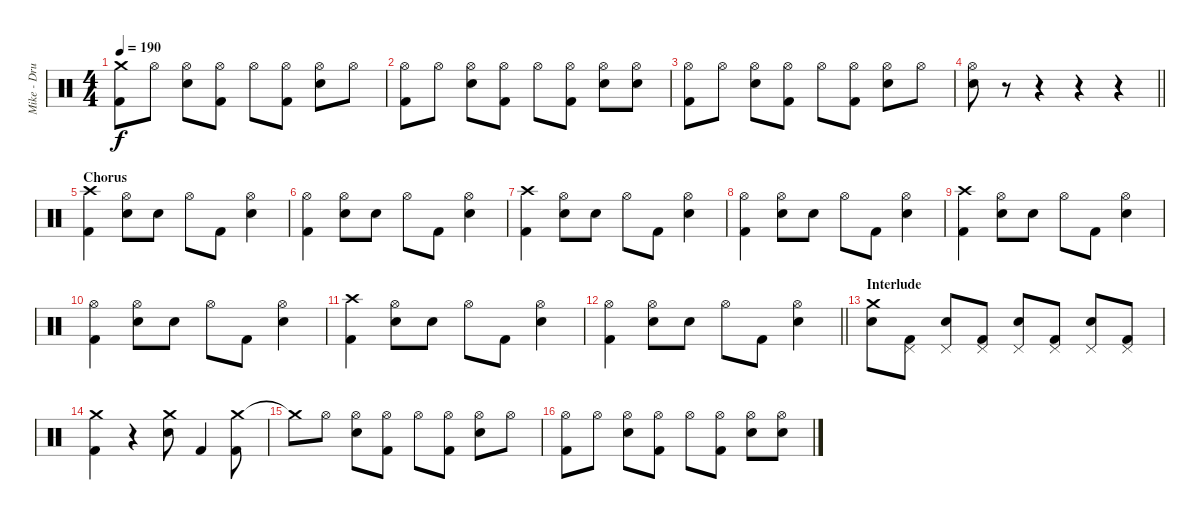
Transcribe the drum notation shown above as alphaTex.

\track ("Mike - Drums" "Mike - Dru") {instrument percussion}
\staff {score}
\articulation defaults
\ts (4 4)
\tempo 190
\clef neutral
\ks c
("Crash medium (hit)" "Kick (hit) 2").8{dy f} "Hi-Hat (open)".8 ("Hi-Hat (open)" "Electric Snare (hit)").8 ("Hi-Hat (open)" "Kick (hit) 2").8 "Hi-Hat (open)".8 ("Hi-Hat (open)" "Kick (hit) 2").8 ("Hi-Hat (open)" "Electric Snare (hit)").8 "Hi-Hat (open)".8 |
("Hi-Hat (open)" "Kick (hit) 2").8 "Hi-Hat (open)".8 ("Hi-Hat (open)" "Electric Snare (hit)").8 ("Hi-Hat (open)" "Kick (hit) 2").8 "Hi-Hat (open)".8 ("Hi-Hat (open)" "Kick (hit) 2").8 ("Hi-Hat (open)" "Electric Snare (hit)").8 ("Hi-Hat (open)" "Electric Snare (hit)").8 |
("Hi-Hat (open)" "Kick (hit) 2").8 "Hi-Hat (open)".8 ("Hi-Hat (open)" "Electric Snare (hit)").8 ("Hi-Hat (open)" "Kick (hit) 2").8 "Hi-Hat (open)".8 ("Hi-Hat (open)" "Kick (hit) 2").8 ("Hi-Hat (open)" "Electric Snare (hit)").8 "Hi-Hat (open)".8 |
\barLineRight lightlight
("Hi-Hat (open)" "Electric Snare (hit)").8 r.8 r.4 r.4 r.4 |
\section ("" "Chorus")
("Crash high (hit)" "Kick (hit) 2").4 ("Hi-Hat (open)" "Electric Snare (hit)").8 "Electric Snare (hit)".8 "Hi-Hat (open)".8 "Kick (hit) 2".8 ("Hi-Hat (open)" "Electric Snare (hit)").4 |
("Hi-Hat (open)" "Kick (hit) 2").4 ("Hi-Hat (open)" "Electric Snare (hit)").8 "Electric Snare (hit)".8 "Hi-Hat (open)".8 "Kick (hit) 2".8 ("Hi-Hat (open)" "Electric Snare (hit)").4 |
("Crash high (hit)" "Kick (hit) 2").4 ("Hi-Hat (open)" "Electric Snare (hit)").8 "Electric Snare (hit)".8 "Hi-Hat (open)".8 "Kick (hit) 2".8 ("Hi-Hat (open)" "Electric Snare (hit)").4 |
("Hi-Hat (open)" "Kick (hit) 2").4 ("Hi-Hat (open)" "Electric Snare (hit)").8 "Electric Snare (hit)".8 "Hi-Hat (open)".8 "Kick (hit) 2".8 ("Hi-Hat (open)" "Electric Snare (hit)").4 |
("Crash high (hit)" "Kick (hit) 2").4 ("Hi-Hat (open)" "Electric Snare (hit)").8 "Electric Snare (hit)".8 "Hi-Hat (open)".8 "Kick (hit) 2".8 ("Hi-Hat (open)" "Electric Snare (hit)").4 |
("Hi-Hat (open)" "Kick (hit) 2").4 ("Hi-Hat (open)" "Electric Snare (hit)").8 "Electric Snare (hit)".8 "Hi-Hat (open)".8 "Kick (hit) 2".8 ("Hi-Hat (open)" "Electric Snare (hit)").4 |
("Crash high (hit)" "Kick (hit) 2").4 ("Hi-Hat (open)" "Electric Snare (hit)").8 "Electric Snare (hit)".8 "Hi-Hat (open)".8 "Kick (hit) 2".8 ("Hi-Hat (open)" "Electric Snare (hit)").4 |
\barLineRight lightlight
("Hi-Hat (open)" "Kick (hit) 2").4 ("Hi-Hat (open)" "Electric Snare (hit)").8 "Electric Snare (hit)".8 "Hi-Hat (open)".8 "Kick (hit) 2".8 ("Hi-Hat (open)" "Electric Snare (hit)").4 |
\section ("" "Interlude")
("Crash medium (hit)" "Electric Snare (hit)").8 ("Pedal Hi-Hat (hit)" "Kick (hit) 2").8 ("Pedal Hi-Hat (hit)" "Electric Snare (hit)").8 ("Pedal Hi-Hat (hit)" "Kick (hit) 2").8 ("Pedal Hi-Hat (hit)" "Electric Snare (hit)").8 ("Pedal Hi-Hat (hit)" "Kick (hit) 2").8 ("Pedal Hi-Hat (hit)" "Electric Snare (hit)").8 ("Pedal Hi-Hat (hit)" "Kick (hit) 2").8 |
("Crash medium (hit)" "Kick (hit) 2").4 r.4 ("Crash medium (hit)" "Electric Snare (hit)").8 "Kick (hit) 2".4 ("Crash medium (hit)" "Kick (hit) 2").8 |
"Crash medium (hit)"{t}.8 "Hi-Hat (open)".8 ("Hi-Hat (open)" "Electric Snare (hit)").8 ("Hi-Hat (open)" "Kick (hit) 2").8 "Hi-Hat (open)".8 ("Hi-Hat (open)" "Kick (hit) 2").8 ("Hi-Hat (open)" "Electric Snare (hit)").8 "Hi-Hat (open)".8 |
("Hi-Hat (open)" "Kick (hit) 2").8 "Hi-Hat (open)".8 ("Hi-Hat (open)" "Electric Snare (hit)").8 ("Hi-Hat (open)" "Kick (hit) 2").8 "Hi-Hat (open)".8 ("Hi-Hat (open)" "Kick (hit) 2").8 ("Hi-Hat (open)" "Electric Snare (hit)").8 ("Hi-Hat (open)" "Electric Snare (hit)").8
